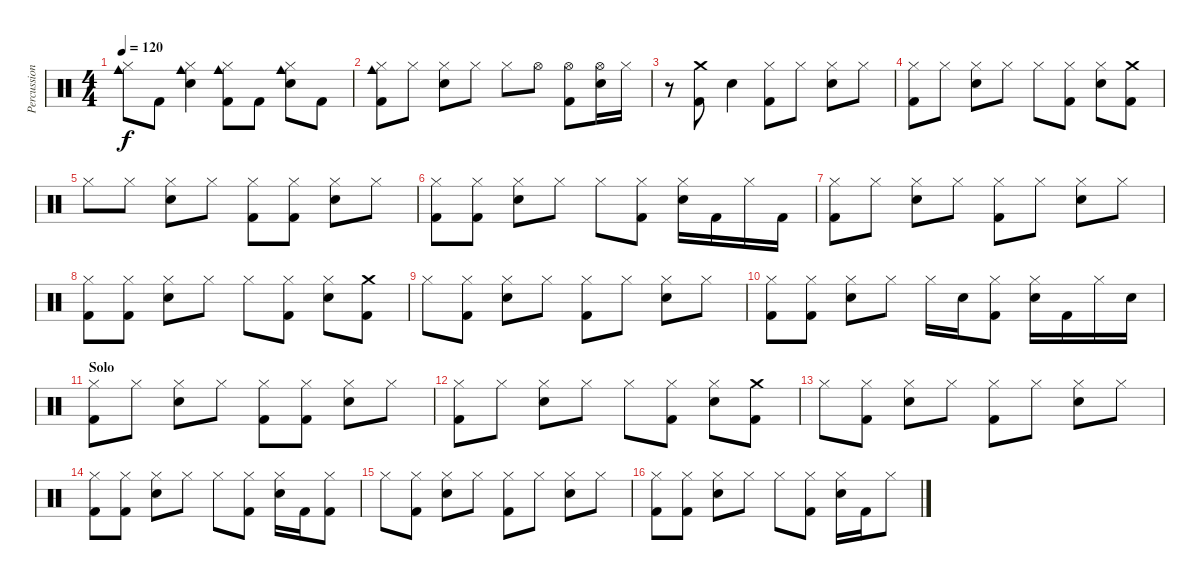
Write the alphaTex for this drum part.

\track ("Percussions" "Percussion") {instrument percussion}
\staff {score}
\articulation defaults
\ts (4 4)
\tempo 120
\clef neutral
\ks c
("Cowbell medium (hit)" "Hi-Hat (closed)").8{dy f} "Kick (hit) 2".8 ("Cowbell medium (hit)" "Hi-Hat (closed)" "Snare (hit) 2").4 ("Cowbell medium (hit)" "Hi-Hat (closed)" "Kick (hit) 2").8 "Kick (hit) 2".8 ("Cowbell medium (hit)" "Hi-Hat (closed)" "Snare (hit) 2").8 "Kick (hit) 2".8 |
("Cowbell medium (hit)" "Hi-Hat (closed)" "Kick (hit) 2").8 "Hi-Hat (closed)".8 ("Hi-Hat (closed)" "Snare (hit) 2").8 "Hi-Hat (closed)".8 "Hi-Hat (closed)".8 "Hi-Hat (open)".8 ("Hi-Hat (open)" "Kick (hit) 2").8 ("Hi-Hat (open)" "Snare (hit) 2").16 "Hi-Hat (closed)".16 |
r.8 ("Crash medium (hit)" "Kick (hit) 2").8 "Snare (hit) 2".4 ("Hi-Hat (closed)" "Kick (hit) 2").8 "Hi-Hat (closed)".8 ("Hi-Hat (closed)" "Snare (hit) 2").8 "Hi-Hat (closed)".8 |
("Hi-Hat (closed)" "Kick (hit) 2").8 "Hi-Hat (closed)".8 ("Hi-Hat (closed)" "Snare (hit) 2").8 "Hi-Hat (closed)".8 "Hi-Hat (closed)".8 ("Hi-Hat (closed)" "Kick (hit) 2").8 ("Hi-Hat (closed)" "Snare (hit) 2").8 ("Crash medium (hit)" "Kick (hit) 2").8 |
"Hi-Hat (closed)".8 "Hi-Hat (closed)".8 ("Hi-Hat (closed)" "Snare (hit) 2").8 "Hi-Hat (closed)".8 ("Hi-Hat (closed)" "Kick (hit) 2").8 ("Hi-Hat (closed)" "Kick (hit) 2").8 ("Hi-Hat (closed)" "Snare (hit) 2").8 "Hi-Hat (closed)".8 |
("Hi-Hat (closed)" "Kick (hit) 2").8 ("Hi-Hat (closed)" "Kick (hit) 2").8 ("Hi-Hat (closed)" "Snare (hit) 2").8 "Hi-Hat (closed)".8 "Hi-Hat (closed)".8 ("Hi-Hat (closed)" "Kick (hit) 2").8 ("Hi-Hat (closed)" "Snare (hit) 2").16 "Kick (hit) 2".16 "Hi-Hat (closed)".16 "Kick (hit) 2".16 |
("Hi-Hat (closed)" "Kick (hit) 2").8 "Hi-Hat (closed)".8 ("Hi-Hat (closed)" "Snare (hit) 2").8 "Hi-Hat (closed)".8 ("Hi-Hat (closed)" "Kick (hit) 2").8 "Hi-Hat (closed)".8 ("Hi-Hat (closed)" "Snare (hit) 2").8 "Hi-Hat (closed)".8 |
("Hi-Hat (closed)" "Kick (hit) 2").8 ("Hi-Hat (closed)" "Kick (hit) 2").8 ("Hi-Hat (closed)" "Snare (hit) 2").8 "Hi-Hat (closed)".8 "Hi-Hat (closed)".8 ("Hi-Hat (closed)" "Kick (hit) 2").8 ("Hi-Hat (closed)" "Snare (hit) 2").8 ("Crash medium (hit)" "Kick (hit) 2").8 |
"Hi-Hat (closed)".8 ("Hi-Hat (closed)" "Kick (hit) 2").8 ("Hi-Hat (closed)" "Snare (hit) 2").8 "Hi-Hat (closed)".8 ("Hi-Hat (closed)" "Kick (hit) 2").8 "Hi-Hat (closed)".8 ("Hi-Hat (closed)" "Snare (hit) 2").8 "Hi-Hat (closed)".8 |
("Hi-Hat (closed)" "Kick (hit) 2").8 ("Hi-Hat (closed)" "Kick (hit) 2").8 ("Hi-Hat (closed)" "Snare (hit) 2").8 "Hi-Hat (closed)".8 "Hi-Hat (closed)".16 "Snare (hit) 2".16 ("Hi-Hat (closed)" "Kick (hit) 2").8 ("Hi-Hat (closed)" "Snare (hit) 2").16 "Kick (hit) 2".16 "Hi-Hat (closed)".16 "Snare (hit) 2".16 |
\section ("" "Solo")
("Hi-Hat (closed)" "Kick (hit) 2").8 "Hi-Hat (closed)".8 ("Hi-Hat (closed)" "Snare (hit) 2").8 "Hi-Hat (closed)".8 ("Hi-Hat (closed)" "Kick (hit) 2").8 ("Hi-Hat (closed)" "Kick (hit) 2").8 ("Hi-Hat (closed)" "Snare (hit) 2").8 "Hi-Hat (closed)".8 |
("Hi-Hat (closed)" "Kick (hit) 2").8 "Hi-Hat (closed)".8 ("Hi-Hat (closed)" "Snare (hit) 2").8 "Hi-Hat (closed)".8 "Hi-Hat (closed)".8 ("Hi-Hat (closed)" "Kick (hit) 2").8 ("Hi-Hat (closed)" "Snare (hit) 2").8 ("Crash medium (hit)" "Kick (hit) 2").8 |
"Hi-Hat (closed)".8 ("Hi-Hat (closed)" "Kick (hit) 2").8 ("Hi-Hat (closed)" "Snare (hit) 2").8 "Hi-Hat (closed)".8 ("Hi-Hat (closed)" "Kick (hit) 2").8 "Hi-Hat (closed)".8 ("Hi-Hat (closed)" "Snare (hit) 2").8 "Hi-Hat (closed)".8 |
("Hi-Hat (closed)" "Kick (hit) 2").8 ("Hi-Hat (closed)" "Kick (hit) 2").8 ("Hi-Hat (closed)" "Snare (hit) 2").8 "Hi-Hat (closed)".8 "Hi-Hat (closed)".8 ("Hi-Hat (closed)" "Kick (hit) 2").8 ("Hi-Hat (closed)" "Snare (hit) 2").16 "Kick (hit) 2".16 ("Hi-Hat (closed)" "Kick (hit) 2").8 |
"Hi-Hat (closed)".8 ("Hi-Hat (closed)" "Kick (hit) 2").8 ("Hi-Hat (closed)" "Snare (hit) 2").8 "Hi-Hat (closed)".8 ("Hi-Hat (closed)" "Kick (hit) 2").8 "Hi-Hat (closed)".8 ("Hi-Hat (closed)" "Snare (hit) 2").8 "Hi-Hat (closed)".8 |
("Hi-Hat (closed)" "Kick (hit) 2").8 ("Hi-Hat (closed)" "Kick (hit) 2").8 ("Hi-Hat (closed)" "Snare (hit) 2").8 "Hi-Hat (closed)".8 "Hi-Hat (closed)".8 ("Hi-Hat (closed)" "Kick (hit) 2").8 ("Hi-Hat (closed)" "Snare (hit) 2").16 "Kick (hit) 2".16 "Hi-Hat (closed)".8
